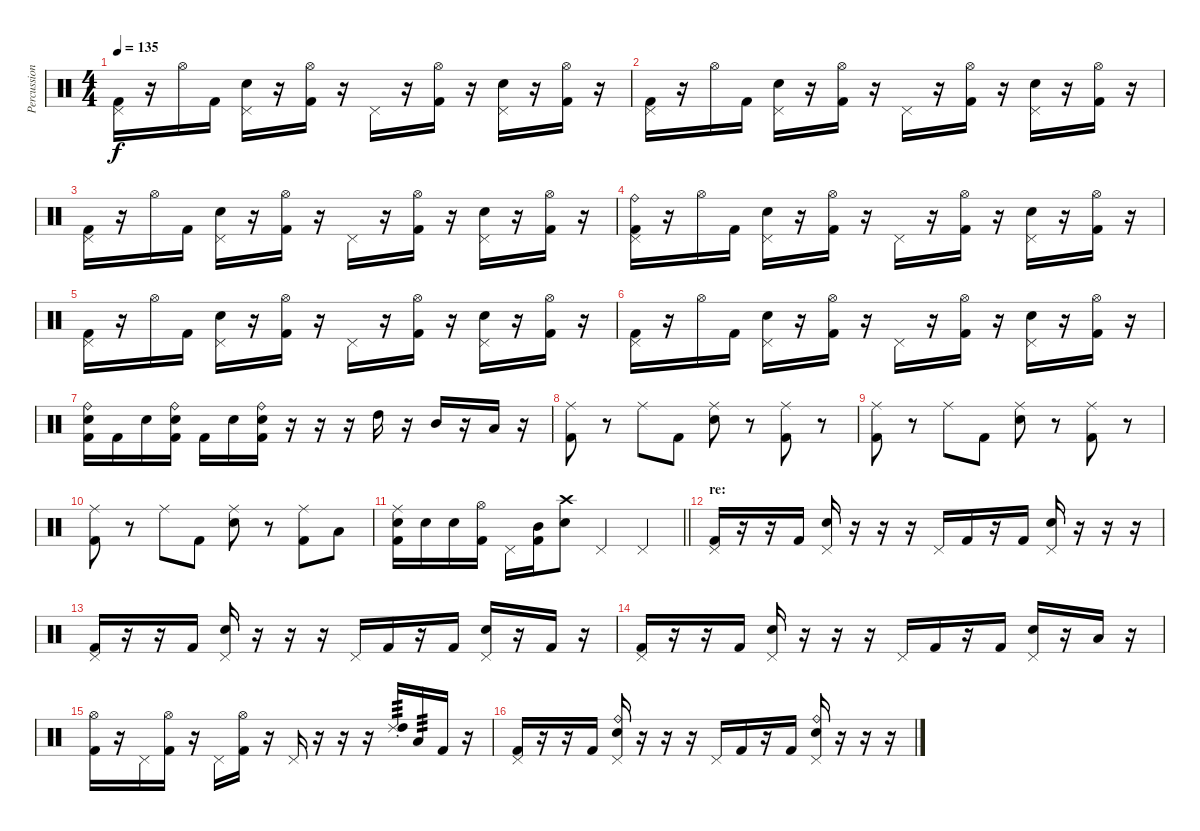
\track ("Percussion" "Percussion") {instrument percussion}
\staff {score}
\articulation defaults
\ts (4 4)
\tempo 135
\clef neutral
\ks c
("Pedal Hi-Hat (hit)" "Kick (hit) 2").16{dy f} r.16 "Hi-Hat (open)".16 "Kick (hit) 2".16 ("Electric Snare (hit)" "Pedal Hi-Hat (hit)").16 r.16 ("Hi-Hat (open)" "Kick (hit) 2").16 r.16 "Pedal Hi-Hat (hit)".16 r.16 ("Hi-Hat (open)" "Kick (hit) 2").16 r.16 ("Electric Snare (hit)" "Pedal Hi-Hat (hit)").16 r.16 ("Hi-Hat (open)" "Kick (hit) 2").16 r.16 |
("Pedal Hi-Hat (hit)" "Kick (hit) 2").16 r.16 "Hi-Hat (open)".16 "Kick (hit) 2".16 ("Electric Snare (hit)" "Pedal Hi-Hat (hit)").16 r.16 ("Hi-Hat (open)" "Kick (hit) 2").16 r.16 "Pedal Hi-Hat (hit)".16 r.16 ("Hi-Hat (open)" "Kick (hit) 2").16 r.16 ("Electric Snare (hit)" "Pedal Hi-Hat (hit)").16 r.16 ("Hi-Hat (open)" "Kick (hit) 2").16 r.16 |
("Pedal Hi-Hat (hit)" "Kick (hit) 2").16 r.16 "Hi-Hat (open)".16 "Kick (hit) 2".16 ("Electric Snare (hit)" "Pedal Hi-Hat (hit)").16 r.16 ("Hi-Hat (open)" "Kick (hit) 2").16 r.16 "Pedal Hi-Hat (hit)".16 r.16 ("Hi-Hat (open)" "Kick (hit) 2").16 r.16 ("Electric Snare (hit)" "Pedal Hi-Hat (hit)").16 r.16 ("Hi-Hat (open)" "Kick (hit) 2").16 r.16 |
("Ride (bell)" "Pedal Hi-Hat (hit)" "Kick (hit) 2").16 r.16 "Hi-Hat (open)".16 "Kick (hit) 2".16 ("Electric Snare (hit)" "Pedal Hi-Hat (hit)").16 r.16 ("Hi-Hat (open)" "Kick (hit) 2").16 r.16 "Pedal Hi-Hat (hit)".16 r.16 ("Hi-Hat (open)" "Kick (hit) 2").16 r.16 ("Electric Snare (hit)" "Pedal Hi-Hat (hit)").16 r.16 ("Hi-Hat (open)" "Kick (hit) 2").16 r.16 |
("Pedal Hi-Hat (hit)" "Kick (hit) 2").16 r.16 "Hi-Hat (open)".16 "Kick (hit) 2".16 ("Electric Snare (hit)" "Pedal Hi-Hat (hit)").16 r.16 ("Hi-Hat (open)" "Kick (hit) 2").16 r.16 "Pedal Hi-Hat (hit)".16 r.16 ("Hi-Hat (open)" "Kick (hit) 2").16 r.16 ("Electric Snare (hit)" "Pedal Hi-Hat (hit)").16 r.16 ("Hi-Hat (open)" "Kick (hit) 2").16 r.16 |
("Pedal Hi-Hat (hit)" "Kick (hit) 2").16 r.16 "Hi-Hat (open)".16 "Kick (hit) 2".16 ("Electric Snare (hit)" "Pedal Hi-Hat (hit)").16 r.16 ("Hi-Hat (open)" "Kick (hit) 2").16 r.16 "Pedal Hi-Hat (hit)".16 r.16 ("Hi-Hat (open)" "Kick (hit) 2").16 r.16 ("Electric Snare (hit)" "Pedal Hi-Hat (hit)").16 r.16 ("Hi-Hat (open)" "Kick (hit) 2").16 r.16 |
("Ride (bell)" "Electric Snare (hit)" "Kick (hit) 2").16 "Kick (hit) 2".16 "Electric Snare (hit)".16 ("Ride (bell)" "Electric Snare (hit)" "Kick (hit) 2").16 "Kick (hit) 2".16 "Electric Snare (hit)".16 ("Ride (bell)" "Electric Snare (hit)" "Kick (hit) 2").16 r.16 r.16 r.16 "High Tom (hit)".16 r.16 "Mid Tom (hit)".16 r.16 "Low Tom (hit)".16 r.16 |
("Ride (middle)" "Kick (hit) 2").8 r.8 "Ride (middle)".8 "Kick (hit) 2".8 ("Ride (middle)" "Electric Snare (hit)").8 r.8 ("Ride (middle)" "Kick (hit) 2").8 r.8 |
("Ride (middle)" "Kick (hit) 2").8 r.8 "Ride (middle)".8 "Kick (hit) 2".8 ("Ride (middle)" "Electric Snare (hit)").8 r.8 ("Ride (middle)" "Kick (hit) 2").8 r.8 |
("Ride (middle)" "Kick (hit) 2").8 r.8 "Ride (middle)".8 "Kick (hit) 2".8 ("Ride (middle)" "Electric Snare (hit)").8 r.8 ("Ride (middle)" "Kick (hit) 2").8 "Low Tom (hit)".8 |
\barLineRight lightlight
("Ride (middle)" "Electric Snare (hit)" "Kick (hit) 2").16 "Electric Snare (hit)".16 "Electric Snare (hit)".16 ("Hi-Hat (open)" "Kick (hit) 2").16 "Pedal Hi-Hat (hit)".16 ("Mid Tom (hit)" "Kick (hit) 2").16 ("Crash high (hit)" "Electric Snare (hit)").8 "Pedal Hi-Hat (hit)".4 "Pedal Hi-Hat (hit)".4 |
\section ("" "re:")
("Pedal Hi-Hat (hit)" "Kick (hit) 2").16 r.16 r.16 "Kick (hit) 2".16 ("Electric Snare (hit)" "Pedal Hi-Hat (hit)").16 r.16 r.16 r.16 "Pedal Hi-Hat (hit)".16 "Kick (hit) 2".16 r.16 "Kick (hit) 2".16 ("Electric Snare (hit)" "Pedal Hi-Hat (hit)").16 r.16 r.16 r.16 |
("Pedal Hi-Hat (hit)" "Kick (hit) 2").16 r.16 r.16 "Kick (hit) 2".16 ("Electric Snare (hit)" "Pedal Hi-Hat (hit)").16 r.16 r.16 r.16 "Pedal Hi-Hat (hit)".16 "Kick (hit) 2".16 r.16 "Kick (hit) 2".16 ("Electric Snare (hit)" "Pedal Hi-Hat (hit)").16 r.16 "Kick (hit) 2".16 r.16 |
("Pedal Hi-Hat (hit)" "Kick (hit) 2").16 r.16 r.16 "Kick (hit) 2".16 ("Electric Snare (hit)" "Pedal Hi-Hat (hit)").16 r.16 r.16 r.16 "Pedal Hi-Hat (hit)".16 "Kick (hit) 2".16 r.16 "Kick (hit) 2".16 ("Electric Snare (hit)" "Pedal Hi-Hat (hit)").16 r.16 "Low Tom (hit)".16 r.16 |
("Hi-Hat (open)" "Kick (hit) 2").16 r.16 "Pedal Hi-Hat (hit)".16 ("Hi-Hat (open)" "Kick (hit) 2").16 r.16 "Pedal Hi-Hat (hit)".16 ("Hi-Hat (open)" "Kick (hit) 2").16 r.16 "Pedal Hi-Hat (hit)".16 r.16 r.16 r.16 ("Ride (choke) 2" "High Tom (hit)").16{tp 3} "Low Tom (hit)".16{tp 3} "Kick (hit) 2".16 r.16 |
("Pedal Hi-Hat (hit)" "Kick (hit) 2").16 r.16 r.16 "Kick (hit) 2".16 ("Ride (bell)" "Electric Snare (hit)" "Pedal Hi-Hat (hit)").16 r.16 r.16 r.16 "Pedal Hi-Hat (hit)".16 "Kick (hit) 2".16 r.16 "Kick (hit) 2".16 ("Ride (bell)" "Electric Snare (hit)" "Pedal Hi-Hat (hit)").16 r.16 r.16 r.16
